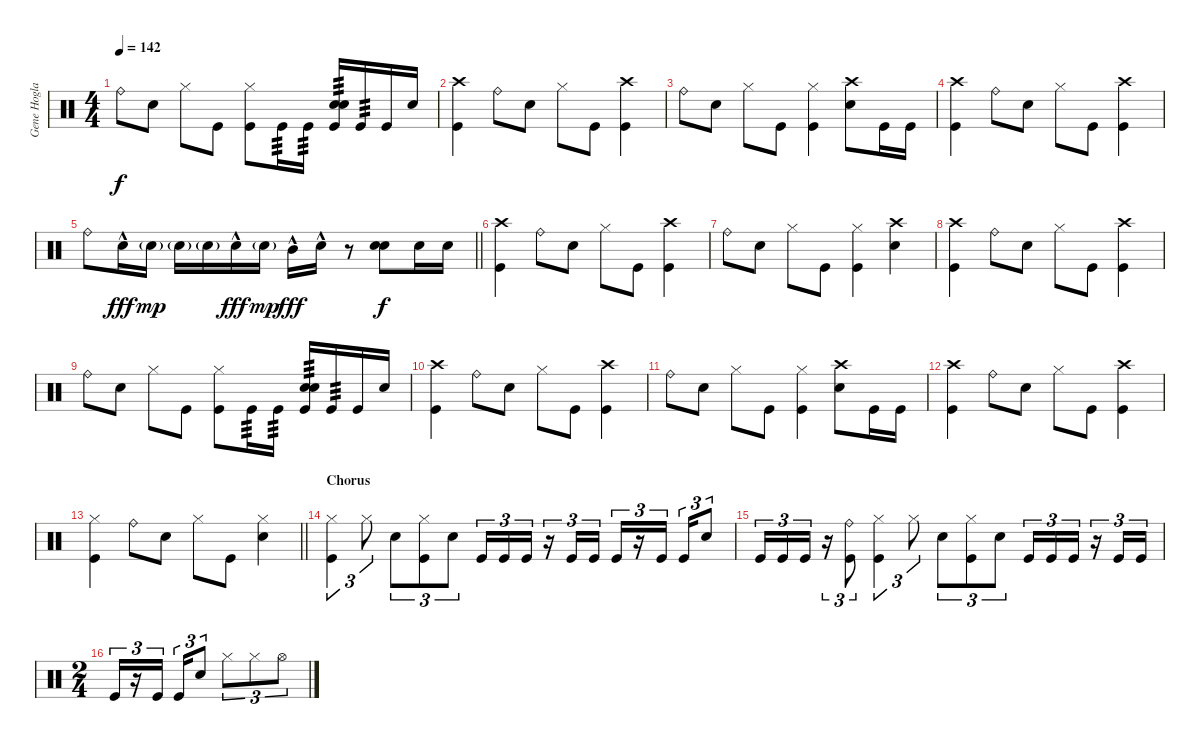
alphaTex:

\track ("Gene Hoglan" "Gene Hogla") {instrument percussion}
\staff {score}
\articulation defaults
\ts (4 4)
\tempo 142
\clef neutral
\ks c "Ride (bell)".8{dy f} "Snare (hit) 2".8 "Hi-Hat (closed)".8 "Kick (hit)".8
("Hi-Hat (closed)" "Kick (hit)").8 "Kick (hit)".16{tp 3} "Kick (hit)".16{tp 3} ("Snare (hit) 2" "Snare (hit) 2" "Kick (hit)").16{tp 3} "Kick (hit)".16{tp 3} "Kick (hit)".16 "Snare (hit) 2".16 |
("Kick (hit)" "Crash high (hit)").4 "Ride (bell)".8 "Snare (hit) 2".8 "Hi-Hat (closed)".8 "Kick (hit)".8 ("Kick (hit)" "Crash high (hit)").4 |
"Ride (bell)".8 "Snare (hit) 2".8 "Hi-Hat (closed)".8 "Kick (hit)".8 ("Hi-Hat (closed)" "Kick (hit)").4 ("Snare (hit) 2" "Crash high (hit)").8 "Kick (hit)".16 "Kick (hit)".16 |
("Kick (hit)" "Crash high (hit)").4 "Ride (bell)".8 "Snare (hit) 2".8 "Hi-Hat (closed)".8 "Kick (hit)".8 ("Kick (hit)" "Crash high (hit)").4 |
\barLineRight lightlight "Ride (bell)".8 "Snare (hit) 2"{hac}.16{dy fff} "Snare (hit) 2"{g}.16{dy mp} "Snare (hit) 2"{g}.16 "Snare (hit) 2"{g}.16 "Snare (hit) 2"{hac}.16{dy fff} "Snare (hit) 2"{g}.16{dy mp} "Mid Tom (hit)"{hac}.16{dy fff} "Snare (hit) 2"{hac}.16
r.8 ("Snare (hit) 2" "Snare (hit) 2").8{dy f} "Snare (hit) 2".16 "Snare (hit) 2".16 |
("Kick (hit)" "Crash high (hit)").4 "Ride (bell)".8 "Snare (hit) 2".8 "Hi-Hat (closed)".8 "Kick (hit)".8 ("Kick (hit)" "Crash high (hit)").4 |
"Ride (bell)".8 "Snare (hit) 2".8 "Hi-Hat (closed)".8 "Kick (hit)".8 ("Hi-Hat (closed)" "Kick (hit)").4 ("Snare (hit) 2" "Crash high (hit)").4 |
("Kick (hit)" "Crash high (hit)").4 "Ride (bell)".8 "Snare (hit) 2".8 "Hi-Hat (closed)".8 "Kick (hit)".8 ("Kick (hit)" "Crash high (hit)").4 |
"Ride (bell)".8 "Snare (hit) 2".8 "Hi-Hat (closed)".8 "Kick (hit)".8 ("Hi-Hat (closed)" "Kick (hit)").8 "Kick (hit)".16{tp 3} "Kick (hit)".16{tp 3} ("Snare (hit) 2" "Snare (hit) 2" "Kick (hit)").16{tp 3} "Kick (hit)".16{tp 3} "Kick (hit)".16 "Snare (hit) 2".16 |
("Kick (hit)" "Crash high (hit)").4 "Ride (bell)".8 "Snare (hit) 2".8 "Hi-Hat (closed)".8 "Kick (hit)".8 ("Kick (hit)" "Crash high (hit)").4 |
"Ride (bell)".8 "Snare (hit) 2".8 "Hi-Hat (closed)".8 "Kick (hit)".8 ("Hi-Hat (closed)" "Kick (hit)").4 ("Snare (hit) 2" "Crash high (hit)").8 "Kick (hit)".16 "Kick (hit)".16 |
("Kick (hit)" "Crash high (hit)").4 "Ride (bell)".8 "Snare (hit) 2".8 "Hi-Hat (closed)".8 "Kick (hit)".8 ("Kick (hit)" "Crash high (hit)").4 |
\barLineRight lightlight
("Kick (hit)" "Hi-Hat (closed)").4 "Ride (bell)".8 "Snare (hit) 2".8 "Hi-Hat (closed)".8 "Kick (hit)".8 ("Snare (hit) 2" "Hi-Hat (closed)").4 |
\section ("" "Chorus")
("Kick (hit)" "Hi-Hat (closed)").4{tu (3 2)} "Hi-Hat (closed)".8{tu (3 2)} "Snare (hit) 2".8{tu (3 2)} ("Kick (hit)" "Hi-Hat (closed)").8{tu (3 2)} "Snare (hit) 2".8{tu (3 2)} "Kick (hit)".16{tu (3 2)} "Kick (hit)".16{tu (3 2)} "Kick (hit)".16{tu (3 2)} r.16{tu (3 2)} "Kick (hit)".16{tu (3 2)} "Kick (hit)".16{tu (3 2)} "Kick (hit)".16{tu (3 2)} r.16{tu (3 2)} "Kick (hit)".16{tu (3 2) beam splitsecondary} "Kick (hit)".16{tu (3 2)} "Snare (hit) 2".8{tu (3 2)} |
"Kick (hit)".16{tu (3 2)} "Kick (hit)".16{tu (3 2)} "Kick (hit)".16{tu (3 2)} r.16{tu (3 2)} ("Kick (hit)" "Ride (bell)").8{tu (3 2)} ("Kick (hit)" "Hi-Hat (closed)").4{tu (3 2)} "Hi-Hat (closed)".8{tu (3 2)} "Snare (hit) 2".8{tu (3 2)} ("Hi-Hat (closed)" "Kick (hit)").8{tu (3 2)} "Snare (hit) 2".8{tu (3 2)} "Kick (hit)".16{tu (3 2)} "Kick (hit)".16{tu (3 2)} "Kick (hit)".16{tu (3 2)} r.16{tu (3 2)} "Kick (hit)".16{tu (3 2)} "Kick (hit)".16{tu (3 2)} |
\ts (2 4)
"Kick (hit)".16{tu (3 2)} r.16{tu (3 2)} "Kick (hit)".16{tu (3 2) beam splitsecondary} "Kick (hit)".16{tu (3 2)} "Snare (hit) 2".8{tu (3 2)} "Hi-Hat (closed)".8{tu (3 2)} "Hi-Hat (closed)".8{tu (3 2)} "Hi-Hat (open)".8{tu (3 2)}
